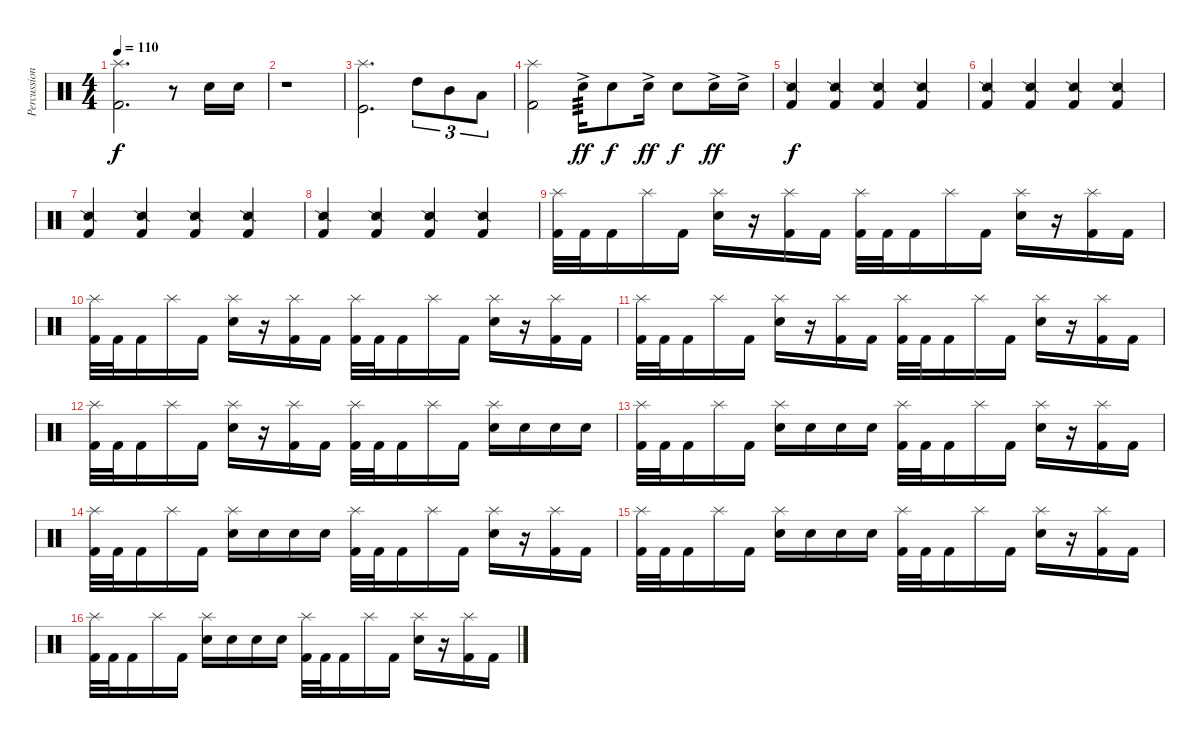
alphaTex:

\track ("Percussion" "Percussion") {instrument percussion}
\staff {score}
\articulation defaults
\ts (4 4)
\tempo 110
\clef neutral
\ks c
("Splash (hit)" "Kick (hit) 2").2{d dy f} r.8 "Electric Snare (hit)".16 "Electric Snare (hit)".16 |
r.1 |
("Splash (hit)" "Kick (hit)").2{d} "High Tom (hit)".8{tu (3 2)} "Mid Tom (hit)".8{tu (3 2)} "Low Floor Tom (hit)".8{tu (3 2)} |
("Splash (hit)" "Kick (hit) 2").2 "Electric Snare (hit)"{ac}.16{tp 3 dy ff} "Electric Snare (hit)".8{dy f} "Electric Snare (hit)"{ac}.16{dy ff} "Electric Snare (hit)".8{dy f} "Electric Snare (hit)"{ac}.16{dy ff} "Electric Snare (hit)"{ac}.16 |
("Snare (side stick) 2" "Kick (hit) 2").4{dy f} ("Snare (side stick) 2" "Kick (hit) 2").4 ("Snare (side stick) 2" "Kick (hit) 2").4 ("Snare (side stick) 2" "Kick (hit) 2").4 |
("Snare (side stick) 2" "Kick (hit) 2").4 ("Snare (side stick) 2" "Kick (hit) 2").4 ("Snare (side stick) 2" "Kick (hit) 2").4 ("Snare (side stick) 2" "Kick (hit) 2").4 |
("Snare (side stick) 2" "Kick (hit) 2").4 ("Snare (side stick) 2" "Kick (hit) 2").4 ("Snare (side stick) 2" "Kick (hit) 2").4 ("Snare (side stick) 2" "Kick (hit) 2").4 |
("Snare (side stick) 2" "Kick (hit) 2").4 ("Snare (side stick) 2" "Kick (hit) 2").4 ("Snare (side stick) 2" "Kick (hit) 2").4 ("Snare (side stick) 2" "Kick (hit) 2").4 |
("Splash (hit)" "Kick (hit) 2").32 "Kick (hit) 2".32 "Kick (hit) 2".16 "Splash (hit)".16 "Kick (hit) 2".16 ("Splash (hit)" "Electric Snare (hit)").16 r.16 ("Splash (hit)" "Kick (hit) 2").16 "Kick (hit) 2".16 ("Splash (hit)" "Kick (hit) 2").32 "Kick (hit) 2".32 "Kick (hit) 2".16 "Splash (hit)".16 "Kick (hit) 2".16 ("Splash (hit)" "Electric Snare (hit)").16 r.16 ("Splash (hit)" "Kick (hit) 2").16 "Kick (hit) 2".16 |
("Splash (hit)" "Kick (hit) 2").32 "Kick (hit) 2".32 "Kick (hit) 2".16 "Splash (hit)".16 "Kick (hit) 2".16 ("Splash (hit)" "Electric Snare (hit)").16 r.16 ("Splash (hit)" "Kick (hit) 2").16 "Kick (hit) 2".16 ("Splash (hit)" "Kick (hit) 2").32 "Kick (hit) 2".32 "Kick (hit) 2".16 "Splash (hit)".16 "Kick (hit) 2".16 ("Splash (hit)" "Electric Snare (hit)").16 r.16 ("Splash (hit)" "Kick (hit) 2").16 "Kick (hit) 2".16 |
("Splash (hit)" "Kick (hit) 2").32 "Kick (hit) 2".32 "Kick (hit) 2".16 "Splash (hit)".16 "Kick (hit) 2".16 ("Splash (hit)" "Electric Snare (hit)").16 r.16 ("Splash (hit)" "Kick (hit) 2").16 "Kick (hit) 2".16 ("Splash (hit)" "Kick (hit) 2").32 "Kick (hit) 2".32 "Kick (hit) 2".16 "Splash (hit)".16 "Kick (hit) 2".16 ("Splash (hit)" "Electric Snare (hit)").16 r.16 ("Splash (hit)" "Kick (hit) 2").16 "Kick (hit) 2".16 |
("Splash (hit)" "Kick (hit) 2").32 "Kick (hit) 2".32 "Kick (hit) 2".16 "Splash (hit)".16 "Kick (hit) 2".16 ("Splash (hit)" "Electric Snare (hit)").16 r.16 ("Splash (hit)" "Kick (hit) 2").16 "Kick (hit) 2".16 ("Splash (hit)" "Kick (hit) 2").32 "Kick (hit) 2".32 "Kick (hit) 2".16 "Splash (hit)".16 "Kick (hit) 2".16 ("Splash (hit)" "Electric Snare (hit)").16 "Electric Snare (hit)".16 "Electric Snare (hit)".16 "Electric Snare (hit)".16 |
("Splash (hit)" "Kick (hit) 2").32 "Kick (hit) 2".32 "Kick (hit) 2".16 "Splash (hit)".16 "Kick (hit) 2".16 ("Splash (hit)" "Electric Snare (hit)").16 "Electric Snare (hit)".16 "Electric Snare (hit)".16 "Electric Snare (hit)".16 ("Splash (hit)" "Kick (hit) 2").32 "Kick (hit) 2".32 "Kick (hit) 2".16 "Splash (hit)".16 "Kick (hit) 2".16 ("Splash (hit)" "Electric Snare (hit)").16 r.16 ("Splash (hit)" "Kick (hit) 2").16 "Kick (hit) 2".16 |
("Splash (hit)" "Kick (hit) 2").32 "Kick (hit) 2".32 "Kick (hit) 2".16 "Splash (hit)".16 "Kick (hit) 2".16 ("Splash (hit)" "Electric Snare (hit)").16 "Electric Snare (hit)".16 "Electric Snare (hit)".16 "Electric Snare (hit)".16 ("Splash (hit)" "Kick (hit) 2").32 "Kick (hit) 2".32 "Kick (hit) 2".16 "Splash (hit)".16 "Kick (hit) 2".16 ("Splash (hit)" "Electric Snare (hit)").16 r.16 ("Splash (hit)" "Kick (hit) 2").16 "Kick (hit) 2".16 |
("Splash (hit)" "Kick (hit) 2").32 "Kick (hit) 2".32 "Kick (hit) 2".16 "Splash (hit)".16 "Kick (hit) 2".16 ("Splash (hit)" "Electric Snare (hit)").16 "Electric Snare (hit)".16 "Electric Snare (hit)".16 "Electric Snare (hit)".16 ("Splash (hit)" "Kick (hit) 2").32 "Kick (hit) 2".32 "Kick (hit) 2".16 "Splash (hit)".16 "Kick (hit) 2".16 ("Splash (hit)" "Electric Snare (hit)").16 r.16 ("Splash (hit)" "Kick (hit) 2").16 "Kick (hit) 2".16 |
("Splash (hit)" "Kick (hit) 2").32 "Kick (hit) 2".32 "Kick (hit) 2".16 "Splash (hit)".16 "Kick (hit) 2".16 ("Splash (hit)" "Electric Snare (hit)").16 "Electric Snare (hit)".16 "Electric Snare (hit)".16 "Electric Snare (hit)".16 ("Splash (hit)" "Kick (hit) 2").32 "Kick (hit) 2".32 "Kick (hit) 2".16 "Splash (hit)".16 "Kick (hit) 2".16 ("Splash (hit)" "Electric Snare (hit)").16 r.16 ("Splash (hit)" "Kick (hit) 2").16 "Kick (hit) 2".16
